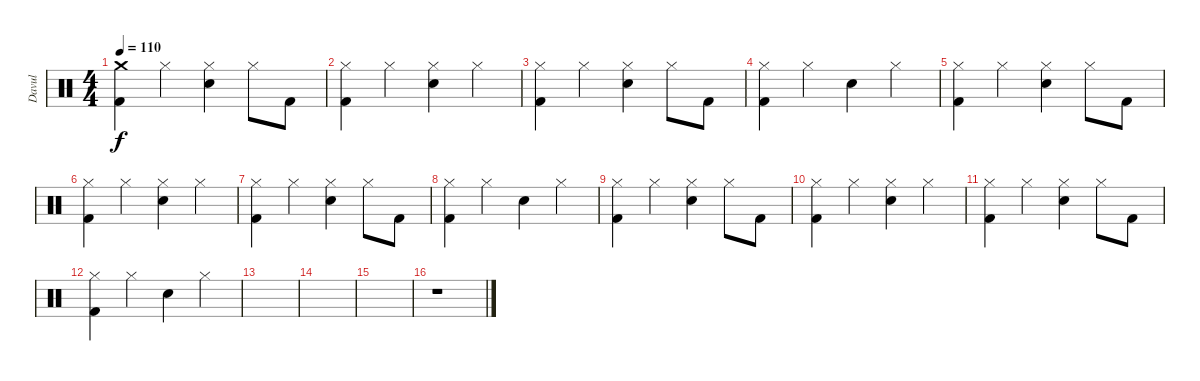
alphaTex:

\track ("Davul" "Davul") {instrument percussion}
\staff {score}
\articulation defaults
\ts (4 4)
\tempo 110
\clef neutral
\ks c
("Crash medium (hit)" "Kick (hit) 2").4{dy f} "Hi-Hat (closed)".4 ("Hi-Hat (closed)" "Electric Snare (hit)").4 "Hi-Hat (closed)".8 "Kick (hit) 2".8 |
("Hi-Hat (closed)" "Kick (hit) 2").4 "Hi-Hat (closed)".4 ("Hi-Hat (closed)" "Electric Snare (hit)").4 "Hi-Hat (closed)".4 |
("Hi-Hat (closed)" "Kick (hit) 2").4 "Hi-Hat (closed)".4 ("Hi-Hat (closed)" "Electric Snare (hit)").4 "Hi-Hat (closed)".8 "Kick (hit) 2".8 |
("Hi-Hat (closed)" "Kick (hit) 2").4 "Hi-Hat (closed)".4 "Electric Snare (hit)".4 "Hi-Hat (closed)".4 |
("Hi-Hat (closed)" "Kick (hit) 2").4 "Hi-Hat (closed)".4 ("Hi-Hat (closed)" "Electric Snare (hit)").4 "Hi-Hat (closed)".8 "Kick (hit) 2".8 |
("Hi-Hat (closed)" "Kick (hit) 2").4 "Hi-Hat (closed)".4 ("Hi-Hat (closed)" "Electric Snare (hit)").4 "Hi-Hat (closed)".4 |
("Hi-Hat (closed)" "Kick (hit) 2").4 "Hi-Hat (closed)".4 ("Hi-Hat (closed)" "Electric Snare (hit)").4 "Hi-Hat (closed)".8 "Kick (hit) 2".8 |
("Hi-Hat (closed)" "Kick (hit) 2").4 "Hi-Hat (closed)".4 "Electric Snare (hit)".4 "Hi-Hat (closed)".4 |
("Hi-Hat (closed)" "Kick (hit) 2").4 "Hi-Hat (closed)".4 ("Hi-Hat (closed)" "Electric Snare (hit)").4 "Hi-Hat (closed)".8 "Kick (hit) 2".8 |
("Hi-Hat (closed)" "Kick (hit) 2").4 "Hi-Hat (closed)".4 ("Hi-Hat (closed)" "Electric Snare (hit)").4 "Hi-Hat (closed)".4 |
("Hi-Hat (closed)" "Kick (hit) 2").4 "Hi-Hat (closed)".4 ("Hi-Hat (closed)" "Electric Snare (hit)").4 "Hi-Hat (closed)".8 "Kick (hit) 2".8 |
("Hi-Hat (closed)" "Kick (hit) 2").4 "Hi-Hat (closed)".4 "Electric Snare (hit)".4 "Hi-Hat (closed)".4 |
|
|
|
r.1
